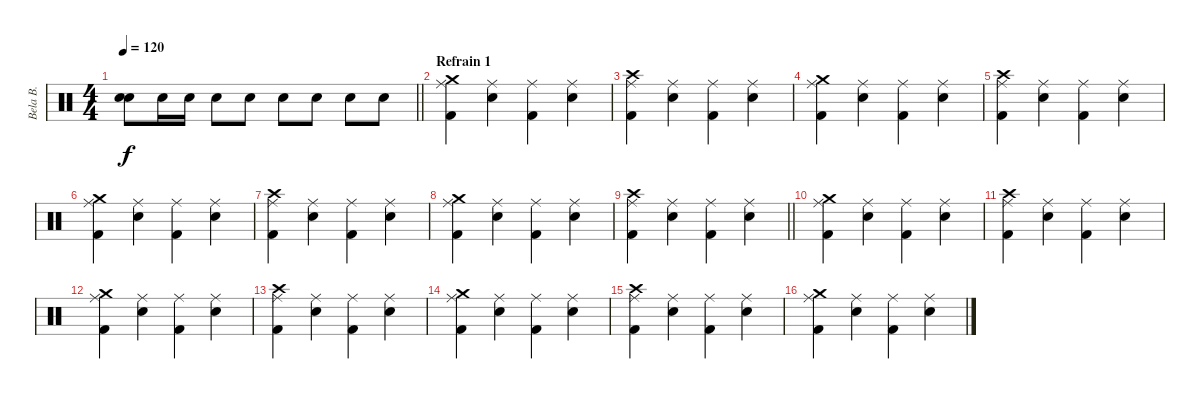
\track ("Bela B." "Bela B.") {instrument percussion}
\staff {score}
\articulation defaults
\ts (4 4)
\tempo 120
\clef neutral
\barLineRight lightlight
\ks c
("Snare (hit)"{t} "Snare (hit)"{t}).8{dy f} "Snare (hit) 2".16 "Snare (hit) 2".16 "Snare (hit) 2".8 "Snare (hit) 2".8 "Snare (hit) 2".8 "Snare (hit) 2".8 "Snare (hit) 2".8 "Snare (hit) 2".8 |
\section ("" "Refrain 1")
("Crash medium (hit)" "Ride (middle)" "Kick (hit) 2").4 ("Ride (middle)" "Snare (hit) 2").4 ("Ride (middle)" "Kick (hit) 2").4 ("Ride (middle)" "Snare (hit) 2").4 |
("Crash high (hit)" "Ride (middle)" "Kick (hit) 2").4 ("Ride (middle)" "Snare (hit) 2").4 ("Ride (middle)" "Kick (hit) 2").4 ("Ride (middle)" "Snare (hit) 2").4 |
("Crash medium (hit)" "Ride (middle)" "Kick (hit) 2").4 ("Ride (middle)" "Snare (hit) 2").4 ("Ride (middle)" "Kick (hit) 2").4 ("Ride (middle)" "Snare (hit) 2").4 |
("Crash high (hit)" "Ride (middle)" "Kick (hit) 2").4 ("Ride (middle)" "Snare (hit) 2").4 ("Ride (middle)" "Kick (hit) 2").4 ("Ride (middle)" "Snare (hit) 2").4 |
("Crash medium (hit)" "Ride (middle)" "Kick (hit) 2").4 ("Ride (middle)" "Snare (hit) 2").4 ("Ride (middle)" "Kick (hit) 2").4 ("Ride (middle)" "Snare (hit) 2").4 |
("Crash high (hit)" "Ride (middle)" "Kick (hit) 2").4 ("Ride (middle)" "Snare (hit) 2").4 ("Ride (middle)" "Kick (hit) 2").4 ("Ride (middle)" "Snare (hit) 2").4 |
("Crash medium (hit)" "Ride (middle)" "Kick (hit) 2").4 ("Ride (middle)" "Snare (hit) 2").4 ("Ride (middle)" "Kick (hit) 2").4 ("Ride (middle)" "Snare (hit) 2").4 |
\barLineRight lightlight
("Crash high (hit)" "Ride (middle)" "Kick (hit) 2").4 ("Ride (middle)" "Snare (hit) 2").4 ("Ride (middle)" "Kick (hit) 2").4 ("Ride (middle)" "Snare (hit) 2").4 |
("Crash medium (hit)" "Ride (middle)" "Kick (hit) 2").4 ("Ride (middle)" "Snare (hit) 2").4 ("Ride (middle)" "Kick (hit) 2").4 ("Ride (middle)" "Snare (hit) 2").4 |
("Crash high (hit)" "Ride (middle)" "Kick (hit) 2").4 ("Ride (middle)" "Snare (hit) 2").4 ("Ride (middle)" "Kick (hit) 2").4 ("Ride (middle)" "Snare (hit) 2").4 |
("Crash medium (hit)" "Ride (middle)" "Kick (hit) 2").4 ("Ride (middle)" "Snare (hit) 2").4 ("Ride (middle)" "Kick (hit) 2").4 ("Ride (middle)" "Snare (hit) 2").4 |
("Crash high (hit)" "Ride (middle)" "Kick (hit) 2").4 ("Ride (middle)" "Snare (hit) 2").4 ("Ride (middle)" "Kick (hit) 2").4 ("Ride (middle)" "Snare (hit) 2").4 |
("Crash medium (hit)" "Ride (middle)" "Kick (hit) 2").4 ("Ride (middle)" "Snare (hit) 2").4 ("Ride (middle)" "Kick (hit) 2").4 ("Ride (middle)" "Snare (hit) 2").4 |
("Crash high (hit)" "Ride (middle)" "Kick (hit) 2").4 ("Ride (middle)" "Snare (hit) 2").4 ("Ride (middle)" "Kick (hit) 2").4 ("Ride (middle)" "Snare (hit) 2").4 |
("Crash medium (hit)" "Ride (middle)" "Kick (hit) 2").4 ("Ride (middle)" "Snare (hit) 2").4 ("Ride (middle)" "Kick (hit) 2").4 ("Ride (middle)" "Snare (hit) 2").4
